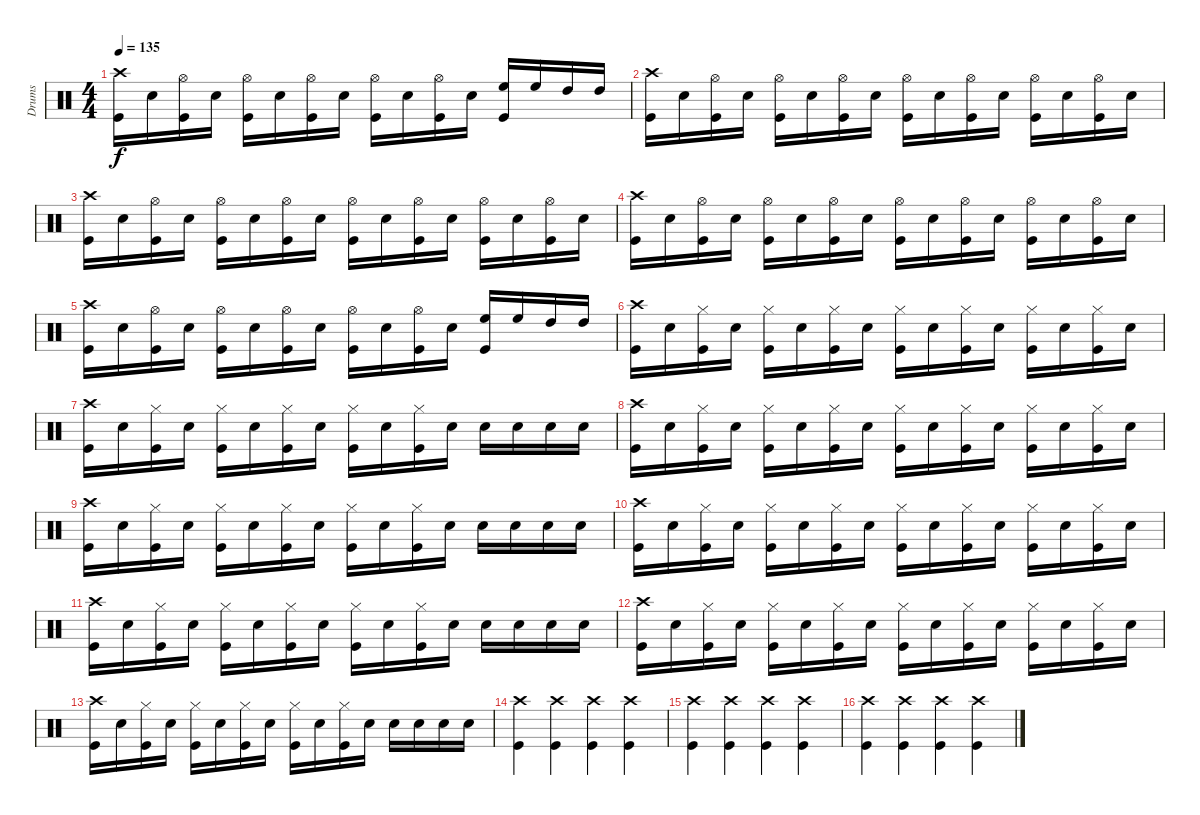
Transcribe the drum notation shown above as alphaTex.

\track ("Drums" "Drums") {instrument percussion}
\staff {score}
\articulation defaults
\ts (4 4)
\tempo 135
\clef neutral
\ks c
("Crash high (hit)" "Kick (hit)").16{dy f} "Snare (hit) 2".16 ("Hi-Hat (open)" "Kick (hit)").16 "Snare (hit) 2".16 ("Hi-Hat (open)" "Kick (hit)").16 "Snare (hit) 2".16 ("Hi-Hat (open)" "Kick (hit)").16 "Snare (hit) 2".16 ("Hi-Hat (open)" "Kick (hit)").16 "Snare (hit) 2".16 ("Hi-Hat (open)" "Kick (hit)").16 "Snare (hit) 2".16 ("High Floor Tom (hit)" "Kick (hit)").16 "High Floor Tom (hit)".16 "High Tom (hit)".16 "High Tom (hit)".16 |
("Crash high (hit)" "Kick (hit)").16 "Snare (hit) 2".16 ("Hi-Hat (open)" "Kick (hit)").16 "Snare (hit) 2".16 ("Hi-Hat (open)" "Kick (hit)").16 "Snare (hit) 2".16 ("Hi-Hat (open)" "Kick (hit)").16 "Snare (hit) 2".16 ("Hi-Hat (open)" "Kick (hit)").16 "Snare (hit) 2".16 ("Hi-Hat (open)" "Kick (hit)").16 "Snare (hit) 2".16 ("Hi-Hat (open)" "Kick (hit)").16 "Snare (hit) 2".16 ("Hi-Hat (open)" "Kick (hit)").16 "Snare (hit) 2".16 |
("Crash high (hit)" "Kick (hit)").16 "Snare (hit) 2".16 ("Hi-Hat (open)" "Kick (hit)").16 "Snare (hit) 2".16 ("Hi-Hat (open)" "Kick (hit)").16 "Snare (hit) 2".16 ("Hi-Hat (open)" "Kick (hit)").16 "Snare (hit) 2".16 ("Hi-Hat (open)" "Kick (hit)").16 "Snare (hit) 2".16 ("Hi-Hat (open)" "Kick (hit)").16 "Snare (hit) 2".16 ("Hi-Hat (open)" "Kick (hit)").16 "Snare (hit) 2".16 ("Hi-Hat (open)" "Kick (hit)").16 "Snare (hit) 2".16 |
("Crash high (hit)" "Kick (hit)").16 "Snare (hit) 2".16 ("Hi-Hat (open)" "Kick (hit)").16 "Snare (hit) 2".16 ("Hi-Hat (open)" "Kick (hit)").16 "Snare (hit) 2".16 ("Hi-Hat (open)" "Kick (hit)").16 "Snare (hit) 2".16 ("Hi-Hat (open)" "Kick (hit)").16 "Snare (hit) 2".16 ("Hi-Hat (open)" "Kick (hit)").16 "Snare (hit) 2".16 ("Hi-Hat (open)" "Kick (hit)").16 "Snare (hit) 2".16 ("Hi-Hat (open)" "Kick (hit)").16 "Snare (hit) 2".16 |
("Crash high (hit)" "Kick (hit)").16 "Snare (hit) 2".16 ("Hi-Hat (open)" "Kick (hit)").16 "Snare (hit) 2".16 ("Hi-Hat (open)" "Kick (hit)").16 "Snare (hit) 2".16 ("Hi-Hat (open)" "Kick (hit)").16 "Snare (hit) 2".16 ("Hi-Hat (open)" "Kick (hit)").16 "Snare (hit) 2".16 ("Hi-Hat (open)" "Kick (hit)").16 "Snare (hit) 2".16 ("High Floor Tom (hit)" "Kick (hit)").16 "High Floor Tom (hit)".16 "High Tom (hit)".16 "High Tom (hit)".16 |
("Crash high (hit)" "Kick (hit)").16 "Snare (hit) 2".16 ("Hi-Hat (closed)" "Kick (hit)").16 "Snare (hit) 2".16 ("Hi-Hat (closed)" "Kick (hit)").16 "Snare (hit) 2".16 ("Hi-Hat (closed)" "Kick (hit)").16 "Snare (hit) 2".16 ("Hi-Hat (closed)" "Kick (hit)").16 "Snare (hit) 2".16 ("Hi-Hat (closed)" "Kick (hit)").16 "Snare (hit) 2".16 ("Hi-Hat (closed)" "Kick (hit)").16 "Snare (hit) 2".16 ("Hi-Hat (closed)" "Kick (hit)").16 "Snare (hit) 2".16 |
("Crash high (hit)" "Kick (hit)").16 "Snare (hit) 2".16 ("Hi-Hat (closed)" "Kick (hit)").16 "Snare (hit) 2".16 ("Hi-Hat (closed)" "Kick (hit)").16 "Snare (hit) 2".16 ("Hi-Hat (closed)" "Kick (hit)").16 "Snare (hit) 2".16 ("Hi-Hat (closed)" "Kick (hit)").16 "Snare (hit) 2".16 ("Hi-Hat (closed)" "Kick (hit)").16 "Snare (hit) 2".16 "Snare (hit) 2".16 "Snare (hit) 2".16 "Snare (hit) 2".16 "Snare (hit) 2".16 |
("Crash high (hit)" "Kick (hit)").16 "Snare (hit) 2".16 ("Hi-Hat (closed)" "Kick (hit)").16 "Snare (hit) 2".16 ("Hi-Hat (closed)" "Kick (hit)").16 "Snare (hit) 2".16 ("Hi-Hat (closed)" "Kick (hit)").16 "Snare (hit) 2".16 ("Hi-Hat (closed)" "Kick (hit)").16 "Snare (hit) 2".16 ("Hi-Hat (closed)" "Kick (hit)").16 "Snare (hit) 2".16 ("Hi-Hat (closed)" "Kick (hit)").16 "Snare (hit) 2".16 ("Hi-Hat (closed)" "Kick (hit)").16 "Snare (hit) 2".16 |
("Crash high (hit)" "Kick (hit)").16 "Snare (hit) 2".16 ("Hi-Hat (closed)" "Kick (hit)").16 "Snare (hit) 2".16 ("Hi-Hat (closed)" "Kick (hit)").16 "Snare (hit) 2".16 ("Hi-Hat (closed)" "Kick (hit)").16 "Snare (hit) 2".16 ("Hi-Hat (closed)" "Kick (hit)").16 "Snare (hit) 2".16 ("Hi-Hat (closed)" "Kick (hit)").16 "Snare (hit) 2".16 "Snare (hit) 2".16 "Snare (hit) 2".16 "Snare (hit) 2".16 "Snare (hit) 2".16 |
("Crash high (hit)" "Kick (hit)").16 "Snare (hit) 2".16 ("Hi-Hat (closed)" "Kick (hit)").16 "Snare (hit) 2".16 ("Hi-Hat (closed)" "Kick (hit)").16 "Snare (hit) 2".16 ("Hi-Hat (closed)" "Kick (hit)").16 "Snare (hit) 2".16 ("Hi-Hat (closed)" "Kick (hit)").16 "Snare (hit) 2".16 ("Hi-Hat (closed)" "Kick (hit)").16 "Snare (hit) 2".16 ("Hi-Hat (closed)" "Kick (hit)").16 "Snare (hit) 2".16 ("Hi-Hat (closed)" "Kick (hit)").16 "Snare (hit) 2".16 |
("Crash high (hit)" "Kick (hit)").16 "Snare (hit) 2".16 ("Hi-Hat (closed)" "Kick (hit)").16 "Snare (hit) 2".16 ("Hi-Hat (closed)" "Kick (hit)").16 "Snare (hit) 2".16 ("Hi-Hat (closed)" "Kick (hit)").16 "Snare (hit) 2".16 ("Hi-Hat (closed)" "Kick (hit)").16 "Snare (hit) 2".16 ("Hi-Hat (closed)" "Kick (hit)").16 "Snare (hit) 2".16 "Snare (hit) 2".16 "Snare (hit) 2".16 "Snare (hit) 2".16 "Snare (hit) 2".16 |
("Crash high (hit)" "Kick (hit)").16 "Snare (hit) 2".16 ("Hi-Hat (closed)" "Kick (hit)").16 "Snare (hit) 2".16 ("Hi-Hat (closed)" "Kick (hit)").16 "Snare (hit) 2".16 ("Hi-Hat (closed)" "Kick (hit)").16 "Snare (hit) 2".16 ("Hi-Hat (closed)" "Kick (hit)").16 "Snare (hit) 2".16 ("Hi-Hat (closed)" "Kick (hit)").16 "Snare (hit) 2".16 ("Hi-Hat (closed)" "Kick (hit)").16 "Snare (hit) 2".16 ("Hi-Hat (closed)" "Kick (hit)").16 "Snare (hit) 2".16 |
("Crash high (hit)" "Kick (hit)").16 "Snare (hit) 2".16 ("Hi-Hat (closed)" "Kick (hit)").16 "Snare (hit) 2".16 ("Hi-Hat (closed)" "Kick (hit)").16 "Snare (hit) 2".16 ("Hi-Hat (closed)" "Kick (hit)").16 "Snare (hit) 2".16 ("Hi-Hat (closed)" "Kick (hit)").16 "Snare (hit) 2".16 ("Hi-Hat (closed)" "Kick (hit)").16 "Snare (hit) 2".16 "Snare (hit) 2".16 "Snare (hit) 2".16 "Snare (hit) 2".16 "Snare (hit) 2".16 |
("Crash high (hit)" "Kick (hit)").4 ("Crash high (hit)" "Kick (hit)").4 ("Crash high (hit)" "Kick (hit)").4 ("Crash high (hit)" "Kick (hit)").4 |
("Crash high (hit)" "Kick (hit)").4 ("Crash high (hit)" "Kick (hit)").4 ("Crash high (hit)" "Kick (hit)").4 ("Crash high (hit)" "Kick (hit)").4 |
("Crash high (hit)" "Kick (hit)").4 ("Crash high (hit)" "Kick (hit)").4 ("Crash high (hit)" "Kick (hit)").4 ("Crash high (hit)" "Kick (hit)").4
